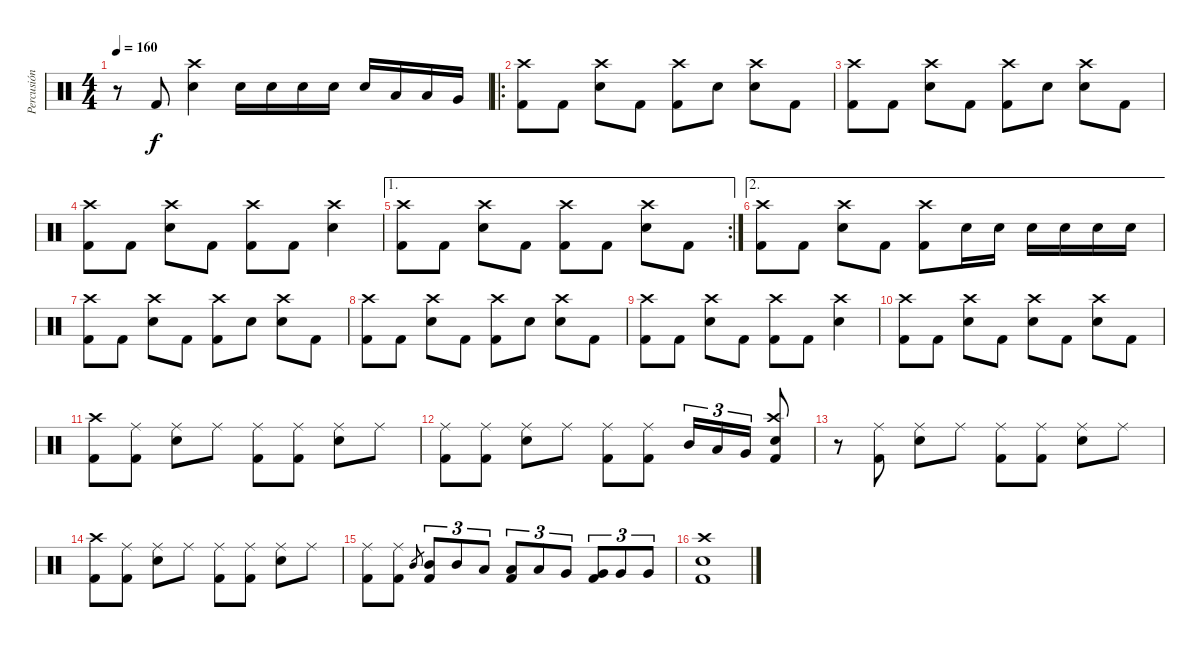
\track ("Percusión" "Percusión") {instrument percussion}
\staff {score}
\articulation defaults
\ts (4 4)
\tempo 160
\clef neutral
\ks c
r.8{dy f} "Kick (hit) 2".8 ("Crash high (hit)" "Electric Snare (hit)").4 "Electric Snare (hit)".16 "Electric Snare (hit)".16 "Electric Snare (hit)".16 "Electric Snare (hit)".16 "Electric Snare (hit)".16 "Low Tom (hit)".16 "Low Tom (hit)".16 "Very Low Tom (hit)".16 |
\ro
("Crash high (hit)" "Kick (hit) 2").8 "Kick (hit) 2".8 ("Crash high (hit)" "Electric Snare (hit)").8 "Kick (hit) 2".8 ("Crash high (hit)" "Kick (hit) 2").8 "Electric Snare (hit)".8 ("Crash high (hit)" "Electric Snare (hit)").8 "Kick (hit) 2".8 |
("Crash high (hit)" "Kick (hit) 2").8 "Kick (hit) 2".8 ("Crash high (hit)" "Electric Snare (hit)").8 "Kick (hit) 2".8 ("Crash high (hit)" "Kick (hit) 2").8 "Electric Snare (hit)".8 ("Crash high (hit)" "Electric Snare (hit)").8 "Kick (hit) 2".8 |
("Crash high (hit)" "Kick (hit) 2").8 "Kick (hit) 2".8 ("Crash high (hit)" "Electric Snare (hit)").8 "Kick (hit) 2".8 ("Crash high (hit)" "Kick (hit) 2").8 "Kick (hit) 2".8 ("Crash high (hit)" "Electric Snare (hit)").4 |
\ae 1
\rc 2
("Crash high (hit)" "Kick (hit) 2").8 "Kick (hit) 2".8 ("Crash high (hit)" "Electric Snare (hit)").8 "Kick (hit) 2".8 ("Crash high (hit)" "Kick (hit) 2").8 "Kick (hit) 2".8 ("Crash high (hit)" "Electric Snare (hit)").8 "Kick (hit) 2".8 |
\ae 2
("Crash high (hit)" "Kick (hit) 2").8 "Kick (hit) 2".8 ("Crash high (hit)" "Electric Snare (hit)").8 "Kick (hit) 2".8 ("Crash high (hit)" "Kick (hit) 2").8 "Electric Snare (hit)".16 "Electric Snare (hit)".16 "Electric Snare (hit)".16 "Electric Snare (hit)".16 "Electric Snare (hit)".16 "Electric Snare (hit)".16 |
("Crash high (hit)" "Kick (hit) 2").8 "Kick (hit) 2".8 ("Crash high (hit)" "Electric Snare (hit)").8 "Kick (hit) 2".8 ("Crash high (hit)" "Kick (hit) 2").8 "Electric Snare (hit)".8 ("Crash high (hit)" "Electric Snare (hit)").8 "Kick (hit) 2".8 |
("Crash high (hit)" "Kick (hit) 2").8 "Kick (hit) 2".8 ("Crash high (hit)" "Electric Snare (hit)").8 "Kick (hit) 2".8 ("Crash high (hit)" "Kick (hit) 2").8 "Electric Snare (hit)".8 ("Crash high (hit)" "Electric Snare (hit)").8 "Kick (hit) 2".8 |
("Crash high (hit)" "Kick (hit) 2").8 "Kick (hit) 2".8 ("Crash high (hit)" "Electric Snare (hit)").8 "Kick (hit) 2".8 ("Crash high (hit)" "Kick (hit) 2").8 "Kick (hit) 2".8 ("Crash high (hit)" "Electric Snare (hit)").4 |
("Crash high (hit)" "Kick (hit) 2").8 "Kick (hit) 2".8 ("Crash high (hit)" "Electric Snare (hit)").8 "Kick (hit) 2".8 ("Crash high (hit)" "Electric Snare (hit)").8 "Kick (hit) 2".8 ("Crash high (hit)" "Electric Snare (hit)").8 "Kick (hit) 2".8 |
("Crash high (hit)" "Kick (hit) 2").8 ("Ride (middle)" "Kick (hit) 2").8 ("Ride (middle)" "Electric Snare (hit)").8 "Ride (middle)".8 ("Ride (middle)" "Kick (hit) 2").8 ("Ride (middle)" "Kick (hit) 2").8 ("Ride (middle)" "Electric Snare (hit)").8 "Ride (middle)".8 |
("Ride (middle)" "Kick (hit) 2").8 ("Ride (middle)" "Kick (hit) 2").8 ("Ride (middle)" "Electric Snare (hit)").8 "Ride (middle)".8 ("Ride (middle)" "Kick (hit) 2").8 ("Ride (middle)" "Kick (hit) 2").8 "Mid Tom (hit)".16{tu (3 2)} "Low Tom (hit)".16{tu (3 2)} "Very Low Tom (hit)".16{tu (3 2)} ("Crash high (hit)" "Electric Snare (hit)" "Kick (hit) 2").8 |
r.8 ("Ride (middle)" "Kick (hit) 2").8 ("Ride (middle)" "Electric Snare (hit)").8 "Ride (middle)".8 ("Ride (middle)" "Kick (hit) 2").8 ("Ride (middle)" "Kick (hit) 2").8 ("Ride (middle)" "Electric Snare (hit)").8 "Ride (middle)".8 |
("Crash high (hit)" "Kick (hit) 2").8 ("Ride (middle)" "Kick (hit) 2").8 ("Ride (middle)" "Electric Snare (hit)").8 "Ride (middle)".8 ("Ride (middle)" "Kick (hit) 2").8 ("Ride (middle)" "Kick (hit) 2").8 ("Ride (middle)" "Electric Snare (hit)").8 "Ride (middle)".8 |
("Ride (middle)" "Kick (hit) 2").8 ("Ride (middle)" "Kick (hit) 2").8 "Mid Tom (hit)".8{gr} ("Mid Tom (hit)" "Kick (hit) 2").8{tu (3 2)} "Mid Tom (hit)".8{tu (3 2)} "Low Tom (hit)".8{tu (3 2)} ("Low Tom (hit)" "Kick (hit) 2").8{tu (3 2)} "Low Tom (hit)".8{tu (3 2)} "Very Low Tom (hit)".8{tu (3 2)} ("Very Low Tom (hit)" "Kick (hit) 2").8{tu (3 2)} "Very Low Tom (hit)".8{tu (3 2)} "Very Low Tom (hit)".8{tu (3 2)} |
("Crash high (hit)" "Electric Snare (hit)" "Kick (hit) 2").1
